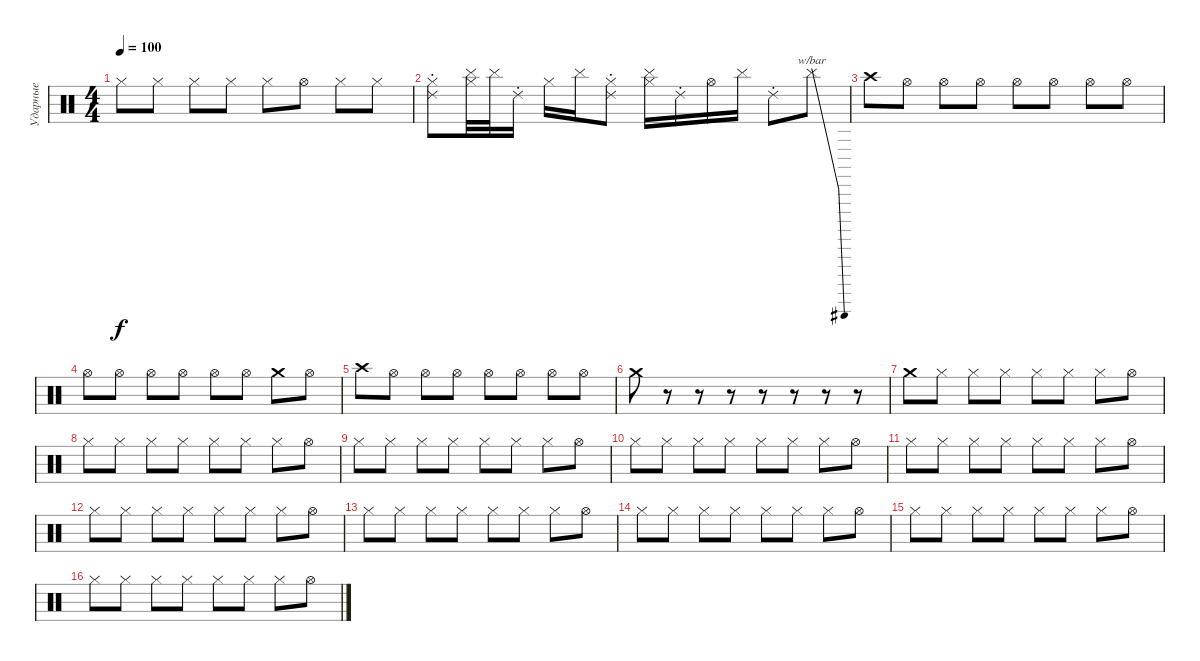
\track ("Ударные" "Ударные") {instrument percussion}
\staff {score}
\articulation defaults
\ts (4 4)
\tempo 100
\clef neutral
\ks c "Hi-Hat (closed)".8{dy f} "Hi-Hat (closed)".8 "Hi-Hat (closed)".8 "Hi-Hat (closed)".8 "Hi-Hat (closed)".8 "Hi-Hat (open)".8 "Hi-Hat (closed)".8 "Hi-Hat (closed)".8
|
("Ride (choke) 2" "Hi-Hat (closed)").8 ("Cymbal (hit)" "Hi-Hat (closed)").32 "Cymbal (hit)".32 "Ride (choke) 2".16 "Hi-Hat (closed)".16 "Cymbal (hit)".16 ("Ride (choke) 2" "Hi-Hat (closed)").8 ("Cymbal (hit)" "Hi-Hat (closed)").16 "Ride (choke) 2".16 "Hi-Hat (open)".16 "Cymbal (hit)".16 "Ride (choke) 2".8 "Cymbal (hit)".8{tbe (dive default 0 0 60 -24)} |
"Crash high (hit)".8 "Hi-Hat (open)".8 "Hi-Hat (open)".8 "Hi-Hat (open)".8 "Hi-Hat (open)".8 "Hi-Hat (open)".8 "Hi-Hat (open)".8 "Hi-Hat (open)".8 |
"Hi-Hat (open)".8 "Hi-Hat (open)".8 "Hi-Hat (open)".8 "Hi-Hat (open)".8 "Hi-Hat (open)".8 "Hi-Hat (open)".8 "Crash medium (hit)".8 "Hi-Hat (open)".8 |
"Crash high (hit)".8 "Hi-Hat (open)".8 "Hi-Hat (open)".8 "Hi-Hat (open)".8 "Hi-Hat (open)".8 "Hi-Hat (open)".8 "Hi-Hat (open)".8 "Hi-Hat (open)".8 |
"Crash medium (hit)".8 r.8 r.8 r.8 r.8 r.8 r.8 r.8 |
"Crash medium (hit)".8 "Hi-Hat (closed)".8 "Hi-Hat (closed)".8 "Hi-Hat (closed)".8 "Hi-Hat (closed)".8 "Hi-Hat (closed)".8 "Hi-Hat (closed)".8 "Hi-Hat (open)".8 |
"Hi-Hat (closed)".8 "Hi-Hat (closed)".8 "Hi-Hat (closed)".8 "Hi-Hat (closed)".8 "Hi-Hat (closed)".8 "Hi-Hat (closed)".8 "Hi-Hat (closed)".8 "Hi-Hat (open)".8 |
"Hi-Hat (closed)".8 "Hi-Hat (closed)".8 "Hi-Hat (closed)".8 "Hi-Hat (closed)".8 "Hi-Hat (closed)".8 "Hi-Hat (closed)".8 "Hi-Hat (closed)".8 "Hi-Hat (open)".8 |
"Hi-Hat (closed)".8 "Hi-Hat (closed)".8 "Hi-Hat (closed)".8 "Hi-Hat (closed)".8 "Hi-Hat (closed)".8 "Hi-Hat (closed)".8 "Hi-Hat (closed)".8 "Hi-Hat (open)".8 |
"Hi-Hat (closed)".8 "Hi-Hat (closed)".8 "Hi-Hat (closed)".8 "Hi-Hat (closed)".8 "Hi-Hat (closed)".8 "Hi-Hat (closed)".8 "Hi-Hat (closed)".8 "Hi-Hat (open)".8 |
"Hi-Hat (closed)".8 "Hi-Hat (closed)".8 "Hi-Hat (closed)".8 "Hi-Hat (closed)".8 "Hi-Hat (closed)".8 "Hi-Hat (closed)".8 "Hi-Hat (closed)".8 "Hi-Hat (open)".8 |
"Hi-Hat (closed)".8 "Hi-Hat (closed)".8 "Hi-Hat (closed)".8 "Hi-Hat (closed)".8 "Hi-Hat (closed)".8 "Hi-Hat (closed)".8 "Hi-Hat (closed)".8 "Hi-Hat (open)".8 |
"Hi-Hat (closed)".8 "Hi-Hat (closed)".8 "Hi-Hat (closed)".8 "Hi-Hat (closed)".8 "Hi-Hat (closed)".8 "Hi-Hat (closed)".8 "Hi-Hat (closed)".8 "Hi-Hat (open)".8 |
"Hi-Hat (closed)".8 "Hi-Hat (closed)".8 "Hi-Hat (closed)".8 "Hi-Hat (closed)".8 "Hi-Hat (closed)".8 "Hi-Hat (closed)".8 "Hi-Hat (closed)".8 "Hi-Hat (open)".8 |
"Hi-Hat (closed)".8 "Hi-Hat (closed)".8 "Hi-Hat (closed)".8 "Hi-Hat (closed)".8 "Hi-Hat (closed)".8 "Hi-Hat (closed)".8 "Hi-Hat (closed)".8 "Hi-Hat (open)".8
